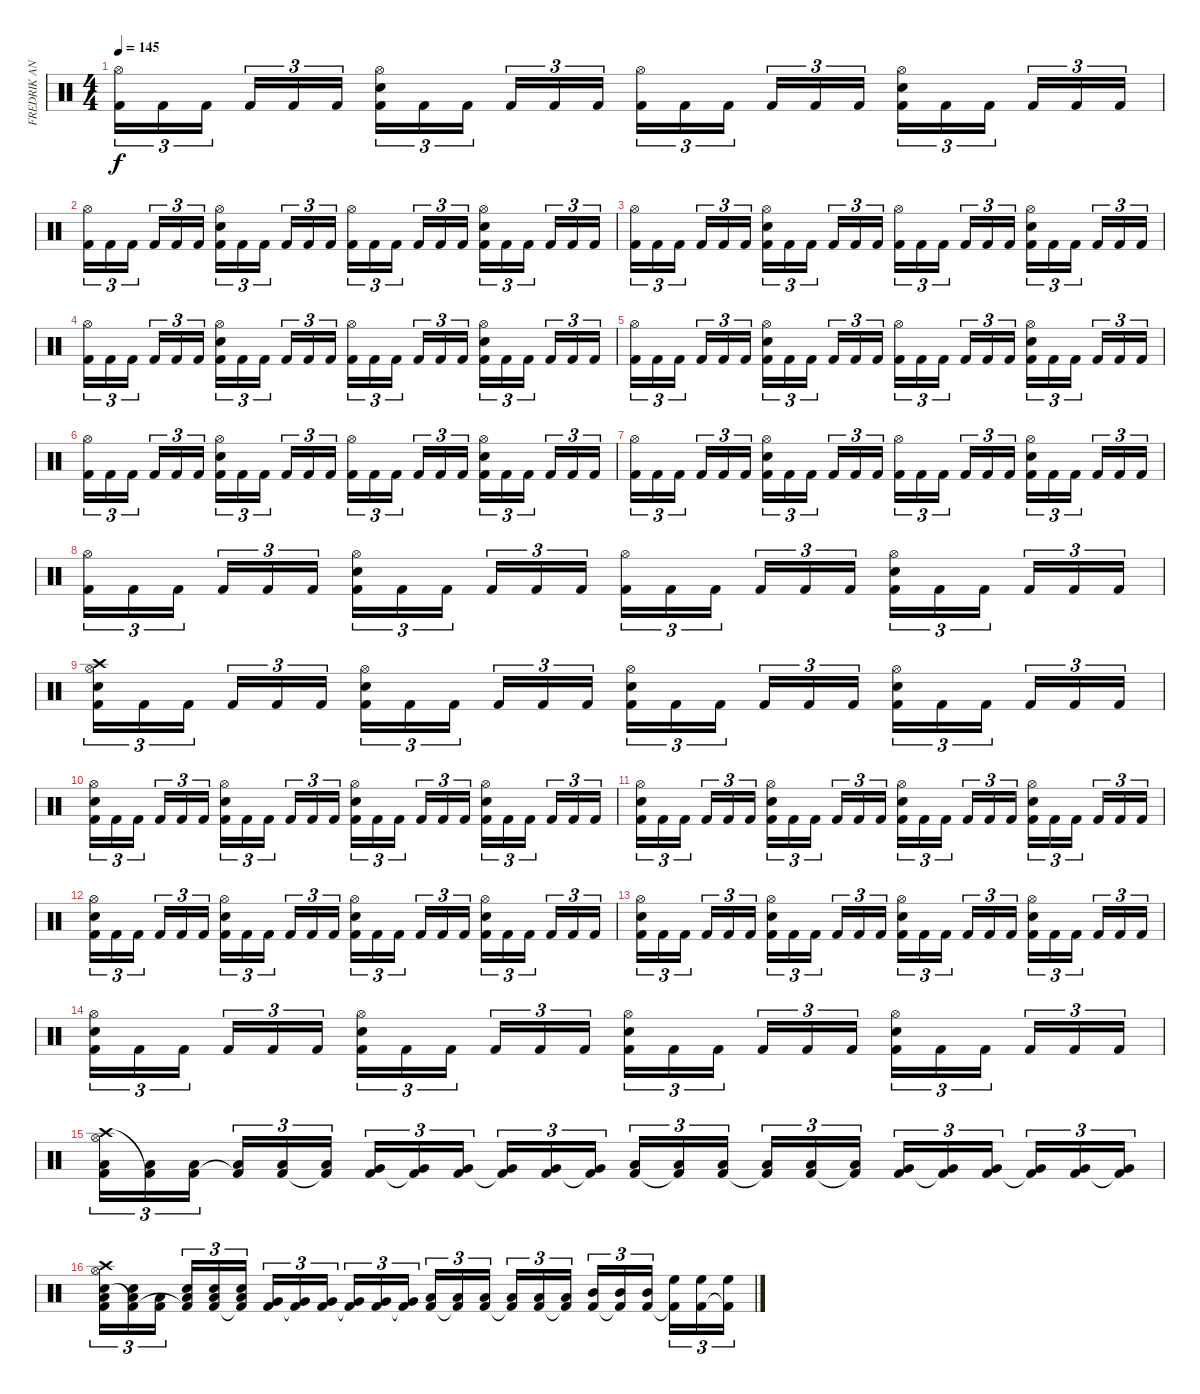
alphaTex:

\track ("FREDRIK ANDERSSON" "FREDRIK AN") {instrument percussion}
\staff {score}
\articulation defaults
\ts (4 4)
\tempo 145
\clef neutral
\ks c
("Hi-Hat (open)" "Kick (hit) 2").16{tu (3 2) dy f} "Kick (hit) 2".16{tu (3 2)} "Kick (hit) 2".16{tu (3 2) beam splitsecondary} "Kick (hit) 2".16{tu (3 2)} "Kick (hit) 2".16{tu (3 2)} "Kick (hit) 2".16{tu (3 2)} ("Hi-Hat (open)" "Snare (hit) 2" "Kick (hit) 2").16{tu (3 2)} "Kick (hit) 2".16{tu (3 2)} "Kick (hit) 2".16{tu (3 2) beam splitsecondary} "Kick (hit) 2".16{tu (3 2)} "Kick (hit) 2".16{tu (3 2)} "Kick (hit) 2".16{tu (3 2)} ("Hi-Hat (open)" "Kick (hit) 2").16{tu (3 2)} "Kick (hit) 2".16{tu (3 2)} "Kick (hit) 2".16{tu (3 2) beam splitsecondary} "Kick (hit) 2".16{tu (3 2)} "Kick (hit) 2".16{tu (3 2)} "Kick (hit) 2".16{tu (3 2)} ("Hi-Hat (open)" "Snare (hit) 2" "Kick (hit) 2").16{tu (3 2)} "Kick (hit) 2".16{tu (3 2)} "Kick (hit) 2".16{tu (3 2) beam splitsecondary} "Kick (hit) 2".16{tu (3 2)} "Kick (hit) 2".16{tu (3 2)} "Kick (hit) 2".16{tu (3 2)} |
("Hi-Hat (open)" "Kick (hit) 2").16{tu (3 2)} "Kick (hit) 2".16{tu (3 2)} "Kick (hit) 2".16{tu (3 2) beam splitsecondary} "Kick (hit) 2".16{tu (3 2)} "Kick (hit) 2".16{tu (3 2)} "Kick (hit) 2".16{tu (3 2)} ("Hi-Hat (open)" "Snare (hit) 2" "Kick (hit) 2").16{tu (3 2)} "Kick (hit) 2".16{tu (3 2)} "Kick (hit) 2".16{tu (3 2) beam splitsecondary} "Kick (hit) 2".16{tu (3 2)} "Kick (hit) 2".16{tu (3 2)} "Kick (hit) 2".16{tu (3 2)} ("Hi-Hat (open)" "Kick (hit) 2").16{tu (3 2)} "Kick (hit) 2".16{tu (3 2)} "Kick (hit) 2".16{tu (3 2) beam splitsecondary} "Kick (hit) 2".16{tu (3 2)} "Kick (hit) 2".16{tu (3 2)} "Kick (hit) 2".16{tu (3 2)} ("Hi-Hat (open)" "Snare (hit) 2" "Kick (hit) 2").16{tu (3 2)} "Kick (hit) 2".16{tu (3 2)} "Kick (hit) 2".16{tu (3 2) beam splitsecondary} "Kick (hit) 2".16{tu (3 2)} "Kick (hit) 2".16{tu (3 2)} "Kick (hit) 2".16{tu (3 2)} |
("Hi-Hat (open)" "Kick (hit) 2").16{tu (3 2)} "Kick (hit) 2".16{tu (3 2)} "Kick (hit) 2".16{tu (3 2) beam splitsecondary} "Kick (hit) 2".16{tu (3 2)} "Kick (hit) 2".16{tu (3 2)} "Kick (hit) 2".16{tu (3 2)} ("Hi-Hat (open)" "Snare (hit) 2" "Kick (hit) 2").16{tu (3 2)} "Kick (hit) 2".16{tu (3 2)} "Kick (hit) 2".16{tu (3 2) beam splitsecondary} "Kick (hit) 2".16{tu (3 2)} "Kick (hit) 2".16{tu (3 2)} "Kick (hit) 2".16{tu (3 2)} ("Hi-Hat (open)" "Kick (hit) 2").16{tu (3 2)} "Kick (hit) 2".16{tu (3 2)} "Kick (hit) 2".16{tu (3 2) beam splitsecondary} "Kick (hit) 2".16{tu (3 2)} "Kick (hit) 2".16{tu (3 2)} "Kick (hit) 2".16{tu (3 2)} ("Hi-Hat (open)" "Snare (hit) 2" "Kick (hit) 2").16{tu (3 2)} "Kick (hit) 2".16{tu (3 2)} "Kick (hit) 2".16{tu (3 2) beam splitsecondary} "Kick (hit) 2".16{tu (3 2)} "Kick (hit) 2".16{tu (3 2)} "Kick (hit) 2".16{tu (3 2)} |
("Hi-Hat (open)" "Kick (hit) 2").16{tu (3 2)} "Kick (hit) 2".16{tu (3 2)} "Kick (hit) 2".16{tu (3 2) beam splitsecondary} "Kick (hit) 2".16{tu (3 2)} "Kick (hit) 2".16{tu (3 2)} "Kick (hit) 2".16{tu (3 2)} ("Hi-Hat (open)" "Snare (hit) 2" "Kick (hit) 2").16{tu (3 2)} "Kick (hit) 2".16{tu (3 2)} "Kick (hit) 2".16{tu (3 2) beam splitsecondary} "Kick (hit) 2".16{tu (3 2)} "Kick (hit) 2".16{tu (3 2)} "Kick (hit) 2".16{tu (3 2)} ("Hi-Hat (open)" "Kick (hit) 2").16{tu (3 2)} "Kick (hit) 2".16{tu (3 2)} "Kick (hit) 2".16{tu (3 2) beam splitsecondary} "Kick (hit) 2".16{tu (3 2)} "Kick (hit) 2".16{tu (3 2)} "Kick (hit) 2".16{tu (3 2)} ("Hi-Hat (open)" "Snare (hit) 2" "Kick (hit) 2").16{tu (3 2)} "Kick (hit) 2".16{tu (3 2)} "Kick (hit) 2".16{tu (3 2) beam splitsecondary} "Kick (hit) 2".16{tu (3 2)} "Kick (hit) 2".16{tu (3 2)} "Kick (hit) 2".16{tu (3 2)} |
("Hi-Hat (open)" "Kick (hit) 2").16{tu (3 2)} "Kick (hit) 2".16{tu (3 2)} "Kick (hit) 2".16{tu (3 2) beam splitsecondary} "Kick (hit) 2".16{tu (3 2)} "Kick (hit) 2".16{tu (3 2)} "Kick (hit) 2".16{tu (3 2)} ("Hi-Hat (open)" "Snare (hit) 2" "Kick (hit) 2").16{tu (3 2)} "Kick (hit) 2".16{tu (3 2)} "Kick (hit) 2".16{tu (3 2) beam splitsecondary} "Kick (hit) 2".16{tu (3 2)} "Kick (hit) 2".16{tu (3 2)} "Kick (hit) 2".16{tu (3 2)} ("Hi-Hat (open)" "Kick (hit) 2").16{tu (3 2)} "Kick (hit) 2".16{tu (3 2)} "Kick (hit) 2".16{tu (3 2) beam splitsecondary} "Kick (hit) 2".16{tu (3 2)} "Kick (hit) 2".16{tu (3 2)} "Kick (hit) 2".16{tu (3 2)} ("Hi-Hat (open)" "Snare (hit) 2" "Kick (hit) 2").16{tu (3 2)} "Kick (hit) 2".16{tu (3 2)} "Kick (hit) 2".16{tu (3 2) beam splitsecondary} "Kick (hit) 2".16{tu (3 2)} "Kick (hit) 2".16{tu (3 2)} "Kick (hit) 2".16{tu (3 2)} |
("Hi-Hat (open)" "Kick (hit) 2").16{tu (3 2)} "Kick (hit) 2".16{tu (3 2)} "Kick (hit) 2".16{tu (3 2) beam splitsecondary} "Kick (hit) 2".16{tu (3 2)} "Kick (hit) 2".16{tu (3 2)} "Kick (hit) 2".16{tu (3 2)} ("Hi-Hat (open)" "Snare (hit) 2" "Kick (hit) 2").16{tu (3 2)} "Kick (hit) 2".16{tu (3 2)} "Kick (hit) 2".16{tu (3 2) beam splitsecondary} "Kick (hit) 2".16{tu (3 2)} "Kick (hit) 2".16{tu (3 2)} "Kick (hit) 2".16{tu (3 2)} ("Hi-Hat (open)" "Kick (hit) 2").16{tu (3 2)} "Kick (hit) 2".16{tu (3 2)} "Kick (hit) 2".16{tu (3 2) beam splitsecondary} "Kick (hit) 2".16{tu (3 2)} "Kick (hit) 2".16{tu (3 2)} "Kick (hit) 2".16{tu (3 2)} ("Hi-Hat (open)" "Snare (hit) 2" "Kick (hit) 2").16{tu (3 2)} "Kick (hit) 2".16{tu (3 2)} "Kick (hit) 2".16{tu (3 2) beam splitsecondary} "Kick (hit) 2".16{tu (3 2)} "Kick (hit) 2".16{tu (3 2)} "Kick (hit) 2".16{tu (3 2)} |
("Hi-Hat (open)" "Kick (hit) 2").16{tu (3 2)} "Kick (hit) 2".16{tu (3 2)} "Kick (hit) 2".16{tu (3 2) beam splitsecondary} "Kick (hit) 2".16{tu (3 2)} "Kick (hit) 2".16{tu (3 2)} "Kick (hit) 2".16{tu (3 2)} ("Hi-Hat (open)" "Snare (hit) 2" "Kick (hit) 2").16{tu (3 2)} "Kick (hit) 2".16{tu (3 2)} "Kick (hit) 2".16{tu (3 2) beam splitsecondary} "Kick (hit) 2".16{tu (3 2)} "Kick (hit) 2".16{tu (3 2)} "Kick (hit) 2".16{tu (3 2)} ("Hi-Hat (open)" "Kick (hit) 2").16{tu (3 2)} "Kick (hit) 2".16{tu (3 2)} "Kick (hit) 2".16{tu (3 2) beam splitsecondary} "Kick (hit) 2".16{tu (3 2)} "Kick (hit) 2".16{tu (3 2)} "Kick (hit) 2".16{tu (3 2)} ("Hi-Hat (open)" "Snare (hit) 2" "Kick (hit) 2").16{tu (3 2)} "Kick (hit) 2".16{tu (3 2)} "Kick (hit) 2".16{tu (3 2) beam splitsecondary} "Kick (hit) 2".16{tu (3 2)} "Kick (hit) 2".16{tu (3 2)} "Kick (hit) 2".16{tu (3 2)} |
("Hi-Hat (open)" "Kick (hit) 2").16{tu (3 2)} "Kick (hit) 2".16{tu (3 2)} "Kick (hit) 2".16{tu (3 2) beam splitsecondary} "Kick (hit) 2".16{tu (3 2)} "Kick (hit) 2".16{tu (3 2)} "Kick (hit) 2".16{tu (3 2)} ("Hi-Hat (open)" "Snare (hit) 2" "Kick (hit) 2").16{tu (3 2)} "Kick (hit) 2".16{tu (3 2)} "Kick (hit) 2".16{tu (3 2) beam splitsecondary} "Kick (hit) 2".16{tu (3 2)} "Kick (hit) 2".16{tu (3 2)} "Kick (hit) 2".16{tu (3 2)} ("Hi-Hat (open)" "Kick (hit) 2").16{tu (3 2)} "Kick (hit) 2".16{tu (3 2)} "Kick (hit) 2".16{tu (3 2) beam splitsecondary} "Kick (hit) 2".16{tu (3 2)} "Kick (hit) 2".16{tu (3 2)} "Kick (hit) 2".16{tu (3 2)} ("Hi-Hat (open)" "Snare (hit) 2" "Kick (hit) 2").16{tu (3 2)} "Kick (hit) 2".16{tu (3 2)} "Kick (hit) 2".16{tu (3 2) beam splitsecondary} "Kick (hit) 2".16{tu (3 2)} "Kick (hit) 2".16{tu (3 2)} "Kick (hit) 2".16{tu (3 2)} |
("Hi-Hat (open)" "Snare (hit) 2" "Crash high (hit)" "Kick (hit) 2").16{tu (3 2)} "Kick (hit) 2".16{tu (3 2)} "Kick (hit) 2".16{tu (3 2) beam splitsecondary} "Kick (hit) 2".16{tu (3 2)} "Kick (hit) 2".16{tu (3 2)} "Kick (hit) 2".16{tu (3 2)} ("Hi-Hat (open)" "Snare (hit) 2" "Kick (hit) 2").16{tu (3 2)} "Kick (hit) 2".16{tu (3 2)} "Kick (hit) 2".16{tu (3 2) beam splitsecondary} "Kick (hit) 2".16{tu (3 2)} "Kick (hit) 2".16{tu (3 2)} "Kick (hit) 2".16{tu (3 2)} ("Hi-Hat (open)" "Snare (hit) 2" "Kick (hit) 2").16{tu (3 2)} "Kick (hit) 2".16{tu (3 2)} "Kick (hit) 2".16{tu (3 2) beam splitsecondary} "Kick (hit) 2".16{tu (3 2)} "Kick (hit) 2".16{tu (3 2)} "Kick (hit) 2".16{tu (3 2)} ("Hi-Hat (open)" "Snare (hit) 2" "Kick (hit) 2").16{tu (3 2)} "Kick (hit) 2".16{tu (3 2)} "Kick (hit) 2".16{tu (3 2) beam splitsecondary} "Kick (hit) 2".16{tu (3 2)} "Kick (hit) 2".16{tu (3 2)} "Kick (hit) 2".16{tu (3 2)} |
("Hi-Hat (open)" "Snare (hit) 2" "Kick (hit) 2").16{tu (3 2)} "Kick (hit) 2".16{tu (3 2)} "Kick (hit) 2".16{tu (3 2) beam splitsecondary} "Kick (hit) 2".16{tu (3 2)} "Kick (hit) 2".16{tu (3 2)} "Kick (hit) 2".16{tu (3 2)} ("Hi-Hat (open)" "Snare (hit) 2" "Kick (hit) 2").16{tu (3 2)} "Kick (hit) 2".16{tu (3 2)} "Kick (hit) 2".16{tu (3 2) beam splitsecondary} "Kick (hit) 2".16{tu (3 2)} "Kick (hit) 2".16{tu (3 2)} "Kick (hit) 2".16{tu (3 2)} ("Hi-Hat (open)" "Snare (hit) 2" "Kick (hit) 2").16{tu (3 2)} "Kick (hit) 2".16{tu (3 2)} "Kick (hit) 2".16{tu (3 2) beam splitsecondary} "Kick (hit) 2".16{tu (3 2)} "Kick (hit) 2".16{tu (3 2)} "Kick (hit) 2".16{tu (3 2)} ("Hi-Hat (open)" "Snare (hit) 2" "Kick (hit) 2").16{tu (3 2)} "Kick (hit) 2".16{tu (3 2)} "Kick (hit) 2".16{tu (3 2) beam splitsecondary} "Kick (hit) 2".16{tu (3 2)} "Kick (hit) 2".16{tu (3 2)} "Kick (hit) 2".16{tu (3 2)} |
("Hi-Hat (open)" "Snare (hit) 2" "Kick (hit) 2").16{tu (3 2)} "Kick (hit) 2".16{tu (3 2)} "Kick (hit) 2".16{tu (3 2) beam splitsecondary} "Kick (hit) 2".16{tu (3 2)} "Kick (hit) 2".16{tu (3 2)} "Kick (hit) 2".16{tu (3 2)} ("Hi-Hat (open)" "Snare (hit) 2" "Kick (hit) 2").16{tu (3 2)} "Kick (hit) 2".16{tu (3 2)} "Kick (hit) 2".16{tu (3 2) beam splitsecondary} "Kick (hit) 2".16{tu (3 2)} "Kick (hit) 2".16{tu (3 2)} "Kick (hit) 2".16{tu (3 2)} ("Hi-Hat (open)" "Snare (hit) 2" "Kick (hit) 2").16{tu (3 2)} "Kick (hit) 2".16{tu (3 2)} "Kick (hit) 2".16{tu (3 2) beam splitsecondary} "Kick (hit) 2".16{tu (3 2)} "Kick (hit) 2".16{tu (3 2)} "Kick (hit) 2".16{tu (3 2)} ("Hi-Hat (open)" "Snare (hit) 2" "Kick (hit) 2").16{tu (3 2)} "Kick (hit) 2".16{tu (3 2)} "Kick (hit) 2".16{tu (3 2) beam splitsecondary} "Kick (hit) 2".16{tu (3 2)} "Kick (hit) 2".16{tu (3 2)} "Kick (hit) 2".16{tu (3 2)} |
("Hi-Hat (open)" "Snare (hit) 2" "Kick (hit) 2").16{tu (3 2)} "Kick (hit) 2".16{tu (3 2)} "Kick (hit) 2".16{tu (3 2) beam splitsecondary} "Kick (hit) 2".16{tu (3 2)} "Kick (hit) 2".16{tu (3 2)} "Kick (hit) 2".16{tu (3 2)} ("Hi-Hat (open)" "Snare (hit) 2" "Kick (hit) 2").16{tu (3 2)} "Kick (hit) 2".16{tu (3 2)} "Kick (hit) 2".16{tu (3 2) beam splitsecondary} "Kick (hit) 2".16{tu (3 2)} "Kick (hit) 2".16{tu (3 2)} "Kick (hit) 2".16{tu (3 2)} ("Hi-Hat (open)" "Snare (hit) 2" "Kick (hit) 2").16{tu (3 2)} "Kick (hit) 2".16{tu (3 2)} "Kick (hit) 2".16{tu (3 2) beam splitsecondary} "Kick (hit) 2".16{tu (3 2)} "Kick (hit) 2".16{tu (3 2)} "Kick (hit) 2".16{tu (3 2)} ("Hi-Hat (open)" "Snare (hit) 2" "Kick (hit) 2").16{tu (3 2)} "Kick (hit) 2".16{tu (3 2)} "Kick (hit) 2".16{tu (3 2) beam splitsecondary} "Kick (hit) 2".16{tu (3 2)} "Kick (hit) 2".16{tu (3 2)} "Kick (hit) 2".16{tu (3 2)} |
("Hi-Hat (open)" "Snare (hit) 2" "Kick (hit) 2").16{tu (3 2)} "Kick (hit) 2".16{tu (3 2)} "Kick (hit) 2".16{tu (3 2) beam splitsecondary} "Kick (hit) 2".16{tu (3 2)} "Kick (hit) 2".16{tu (3 2)} "Kick (hit) 2".16{tu (3 2)} ("Hi-Hat (open)" "Snare (hit) 2" "Kick (hit) 2").16{tu (3 2)} "Kick (hit) 2".16{tu (3 2)} "Kick (hit) 2".16{tu (3 2) beam splitsecondary} "Kick (hit) 2".16{tu (3 2)} "Kick (hit) 2".16{tu (3 2)} "Kick (hit) 2".16{tu (3 2)} ("Hi-Hat (open)" "Snare (hit) 2" "Kick (hit) 2").16{tu (3 2)} "Kick (hit) 2".16{tu (3 2)} "Kick (hit) 2".16{tu (3 2) beam splitsecondary} "Kick (hit) 2".16{tu (3 2)} "Kick (hit) 2".16{tu (3 2)} "Kick (hit) 2".16{tu (3 2)} ("Hi-Hat (open)" "Snare (hit) 2" "Kick (hit) 2").16{tu (3 2)} "Kick (hit) 2".16{tu (3 2)} "Kick (hit) 2".16{tu (3 2) beam splitsecondary} "Kick (hit) 2".16{tu (3 2)} "Kick (hit) 2".16{tu (3 2)} "Kick (hit) 2".16{tu (3 2)} |
("Hi-Hat (open)" "Snare (hit) 2" "Kick (hit) 2").16{tu (3 2)} "Kick (hit) 2".16{tu (3 2)} "Kick (hit) 2".16{tu (3 2) beam splitsecondary} "Kick (hit) 2".16{tu (3 2)} "Kick (hit) 2".16{tu (3 2)} "Kick (hit) 2".16{tu (3 2)} ("Hi-Hat (open)" "Snare (hit) 2" "Kick (hit) 2").16{tu (3 2)} "Kick (hit) 2".16{tu (3 2)} "Kick (hit) 2".16{tu (3 2) beam splitsecondary} "Kick (hit) 2".16{tu (3 2)} "Kick (hit) 2".16{tu (3 2)} "Kick (hit) 2".16{tu (3 2)} ("Hi-Hat (open)" "Snare (hit) 2" "Kick (hit) 2").16{tu (3 2)} "Kick (hit) 2".16{tu (3 2)} "Kick (hit) 2".16{tu (3 2) beam splitsecondary} "Kick (hit) 2".16{tu (3 2)} "Kick (hit) 2".16{tu (3 2)} "Kick (hit) 2".16{tu (3 2)} ("Hi-Hat (open)" "Snare (hit) 2" "Kick (hit) 2").16{tu (3 2)} "Kick (hit) 2".16{tu (3 2)} "Kick (hit) 2".16{tu (3 2) beam splitsecondary} "Kick (hit) 2".16{tu (3 2)} "Kick (hit) 2".16{tu (3 2)} "Kick (hit) 2".16{tu (3 2)} |
("Hi-Hat (open)" "Crash high (hit)" "Low Floor Tom (hit)" "Kick (hit) 2").16{tu (3 2)} ("Low Floor Tom (hit)" "Kick (hit) 2"{t}).16{tu (3 2)} ("Low Floor Tom (hit)" "Kick (hit) 2").16{tu (3 2) beam splitsecondary} ("Low Floor Tom (hit)" "Kick (hit) 2"{t}).16{tu (3 2)} ("Low Floor Tom (hit)" "Kick (hit) 2").16{tu (3 2)} ("Low Floor Tom (hit)" "Kick (hit) 2"{t}).16{tu (3 2)} ("Very Low Tom (hit)" "Kick (hit) 2").16{tu (3 2)} ("Very Low Tom (hit)" "Kick (hit) 2"{t}).16{tu (3 2)} ("Very Low Tom (hit)" "Kick (hit) 2").16{tu (3 2) beam splitsecondary} ("Very Low Tom (hit)" "Kick (hit) 2"{t}).16{tu (3 2)} ("Very Low Tom (hit)" "Kick (hit) 2").16{tu (3 2)} ("Very Low Tom (hit)" "Kick (hit) 2"{t}).16{tu (3 2)} ("Low Tom (hit)" "Kick (hit) 2").16{tu (3 2)} ("Low Tom (hit)" "Kick (hit) 2"{t}).16{tu (3 2)} ("Low Tom (hit)" "Kick (hit) 2").16{tu (3 2) beam splitsecondary} ("Low Tom (hit)" "Kick (hit) 2"{t}).16{tu (3 2)} ("Low Tom (hit)" "Kick (hit) 2").16{tu (3 2)} ("Low Tom (hit)" "Kick (hit) 2"{t}).16{tu (3 2)} ("Very Low Tom (hit)" "Kick (hit) 2").16{tu (3 2)} ("Very Low Tom (hit)" "Kick (hit) 2"{t}).16{tu (3 2)} ("Very Low Tom (hit)" "Kick (hit) 2").16{tu (3 2) beam splitsecondary} ("Very Low Tom (hit)" "Kick (hit) 2"{t}).16{tu (3 2)} ("Very Low Tom (hit)" "Kick (hit) 2").16{tu (3 2)} ("Very Low Tom (hit)" "Kick (hit) 2"{t}).16{tu (3 2)} |
("Hi-Hat (open)" "Crash high (hit)" "Snare (hit) 2" "Low Floor Tom (hit)" "Kick (hit) 2").16{tu (3 2)} ("Snare (hit) 2" "Low Floor Tom (hit)" "Kick (hit) 2"{t}).16{tu (3 2)} ("Low Floor Tom (hit)" "Kick (hit) 2").16{tu (3 2) beam splitsecondary} ("Snare (hit) 2" "Low Floor Tom (hit)" "Kick (hit) 2"{t}).16{tu (3 2)} ("Snare (hit) 2" "Low Floor Tom (hit)" "Kick (hit) 2").16{tu (3 2)} ("Snare (hit) 2" "Low Floor Tom (hit)" "Kick (hit) 2"{t}).16{tu (3 2)} ("Very Low Tom (hit)" "Kick (hit) 2").16{tu (3 2)} ("Very Low Tom (hit)" "Kick (hit) 2"{t}).16{tu (3 2)} ("Very Low Tom (hit)" "Kick (hit) 2").16{tu (3 2) beam splitsecondary} ("Very Low Tom (hit)" "Kick (hit) 2"{t}).16{tu (3 2)} ("Very Low Tom (hit)" "Kick (hit) 2").16{tu (3 2)} ("Very Low Tom (hit)" "Kick (hit) 2"{t}).16{tu (3 2)} ("Low Tom (hit)" "Kick (hit) 2").16{tu (3 2)} ("Low Tom (hit)" "Kick (hit) 2"{t}).16{tu (3 2)} ("Low Tom (hit)" "Kick (hit) 2").16{tu (3 2) beam splitsecondary} ("Low Tom (hit)" "Kick (hit) 2"{t}).16{tu (3 2)} ("Low Tom (hit)" "Kick (hit) 2").16{tu (3 2)} ("Low Tom (hit)" "Kick (hit) 2"{t}).16{tu (3 2)} ("Mid Tom (hit)" "Kick (hit) 2").16{tu (3 2)} ("Mid Tom (hit)" "Kick (hit) 2"{t}).16{tu (3 2)} ("Mid Tom (hit)" "Kick (hit) 2").16{tu (3 2) beam splitsecondary} ("High Floor Tom (hit)" "Kick (hit) 2"{t}).16{tu (3 2)} ("High Floor Tom (hit)" "Kick (hit) 2").16{tu (3 2)} ("High Floor Tom (hit)" "Kick (hit) 2"{t}).16{tu (3 2)}
